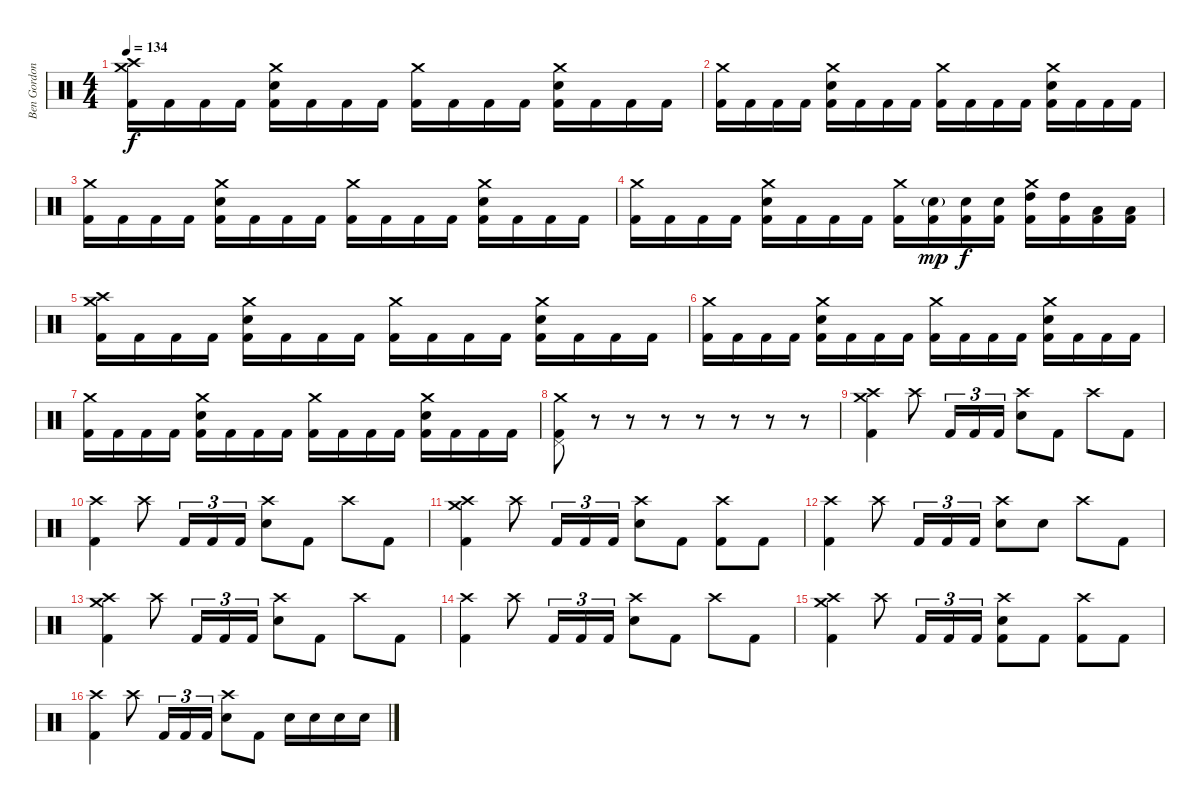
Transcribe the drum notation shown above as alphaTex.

\track ("Ben Gordon" "Ben Gordon") {instrument percussion}
\staff {score}
\articulation defaults
\ts (4 4)
\tempo 134
\clef neutral
\ks c
("Crash medium (hit)" "Crash high (hit)" "Kick (hit) 2").16{dy f} "Kick (hit) 2".16 "Kick (hit) 2".16 "Kick (hit) 2".16 ("Crash medium (hit)" "Electric Snare (hit)" "Kick (hit) 2").16 "Kick (hit) 2".16 "Kick (hit) 2".16 "Kick (hit) 2".16 ("Crash medium (hit)" "Kick (hit) 2").16 "Kick (hit) 2".16 "Kick (hit) 2".16 "Kick (hit) 2".16 ("Crash medium (hit)" "Electric Snare (hit)" "Kick (hit) 2").16 "Kick (hit) 2".16 "Kick (hit) 2".16 "Kick (hit) 2".16 |
("Crash medium (hit)" "Kick (hit) 2").16 "Kick (hit) 2".16 "Kick (hit) 2".16 "Kick (hit) 2".16 ("Crash medium (hit)" "Electric Snare (hit)" "Kick (hit) 2").16 "Kick (hit) 2".16 "Kick (hit) 2".16 "Kick (hit) 2".16 ("Crash medium (hit)" "Kick (hit) 2").16 "Kick (hit) 2".16 "Kick (hit) 2".16 "Kick (hit) 2".16 ("Crash medium (hit)" "Electric Snare (hit)" "Kick (hit) 2").16 "Kick (hit) 2".16 "Kick (hit) 2".16 "Kick (hit) 2".16 |
("Crash medium (hit)" "Kick (hit) 2").16 "Kick (hit) 2".16 "Kick (hit) 2".16 "Kick (hit) 2".16 ("Crash medium (hit)" "Electric Snare (hit)" "Kick (hit) 2").16 "Kick (hit) 2".16 "Kick (hit) 2".16 "Kick (hit) 2".16 ("Crash medium (hit)" "Kick (hit) 2").16 "Kick (hit) 2".16 "Kick (hit) 2".16 "Kick (hit) 2".16 ("Crash medium (hit)" "Electric Snare (hit)" "Kick (hit) 2").16 "Kick (hit) 2".16 "Kick (hit) 2".16 "Kick (hit) 2".16 |
("Crash medium (hit)" "Kick (hit) 2").16 "Kick (hit) 2".16 "Kick (hit) 2".16 "Kick (hit) 2".16 ("Crash medium (hit)" "Electric Snare (hit)" "Kick (hit) 2").16 "Kick (hit) 2".16 "Kick (hit) 2".16 "Kick (hit) 2".16 ("Crash medium (hit)" "Kick (hit) 2").16 ("Electric Snare (hit)"{g} "Kick (hit) 2").16{dy mp} ("Electric Snare (hit)" "Kick (hit) 2").16{dy f} ("Electric Snare (hit)" "Kick (hit) 2").16 ("Crash medium (hit)" "High Tom (hit)" "Kick (hit) 2").16 ("High Tom (hit)" "Kick (hit) 2").16 ("Low Tom (hit)" "Kick (hit) 2").16 ("Low Tom (hit)" "Kick (hit) 2").16 |
("Crash medium (hit)" "Crash high (hit)" "Kick (hit) 2").16 "Kick (hit) 2".16 "Kick (hit) 2".16 "Kick (hit) 2".16 ("Crash medium (hit)" "Electric Snare (hit)" "Kick (hit) 2").16 "Kick (hit) 2".16 "Kick (hit) 2".16 "Kick (hit) 2".16 ("Crash medium (hit)" "Kick (hit) 2").16 "Kick (hit) 2".16 "Kick (hit) 2".16 "Kick (hit) 2".16 ("Crash medium (hit)" "Electric Snare (hit)" "Kick (hit) 2").16 "Kick (hit) 2".16 "Kick (hit) 2".16 "Kick (hit) 2".16 |
("Crash medium (hit)" "Kick (hit) 2").16 "Kick (hit) 2".16 "Kick (hit) 2".16 "Kick (hit) 2".16 ("Crash medium (hit)" "Electric Snare (hit)" "Kick (hit) 2").16 "Kick (hit) 2".16 "Kick (hit) 2".16 "Kick (hit) 2".16 ("Crash medium (hit)" "Kick (hit) 2").16 "Kick (hit) 2".16 "Kick (hit) 2".16 "Kick (hit) 2".16 ("Crash medium (hit)" "Electric Snare (hit)" "Kick (hit) 2").16 "Kick (hit) 2".16 "Kick (hit) 2".16 "Kick (hit) 2".16 |
("Crash medium (hit)" "Kick (hit) 2").16 "Kick (hit) 2".16 "Kick (hit) 2".16 "Kick (hit) 2".16 ("Crash medium (hit)" "Electric Snare (hit)" "Kick (hit) 2").16 "Kick (hit) 2".16 "Kick (hit) 2".16 "Kick (hit) 2".16 ("Crash medium (hit)" "Kick (hit) 2").16 "Kick (hit) 2".16 "Kick (hit) 2".16 "Kick (hit) 2".16 ("Crash medium (hit)" "Electric Snare (hit)" "Kick (hit) 2").16 "Kick (hit) 2".16 "Kick (hit) 2".16 "Kick (hit) 2".16 |
("Crash medium (hit)" "Pedal Hi-Hat (hit)" "Kick (hit) 2").8 r.8 r.8 r.8 r.8 r.8 r.8 r.8 |
("Crash medium (hit)" "Crash high (hit)" "Kick (hit) 2").4 "Crash high (hit)".8 "Kick (hit) 2".16{tu (3 2)} "Kick (hit) 2".16{tu (3 2)} "Kick (hit) 2".16{tu (3 2)} ("Crash high (hit)" "Electric Snare (hit)").8 "Kick (hit) 2".8 "Crash high (hit)".8 "Kick (hit) 2".8 |
("Crash high (hit)" "Kick (hit) 2").4 "Crash high (hit)".8 "Kick (hit) 2".16{tu (3 2)} "Kick (hit) 2".16{tu (3 2)} "Kick (hit) 2".16{tu (3 2)} ("Crash high (hit)" "Electric Snare (hit)").8 "Kick (hit) 2".8 "Crash high (hit)".8 "Kick (hit) 2".8 |
("Crash medium (hit)" "Crash high (hit)" "Kick (hit) 2").4 "Crash high (hit)".8 "Kick (hit) 2".16{tu (3 2)} "Kick (hit) 2".16{tu (3 2)} "Kick (hit) 2".16{tu (3 2)} ("Crash high (hit)" "Electric Snare (hit)").8 "Kick (hit) 2".8 ("Crash high (hit)" "Kick (hit) 2").8 "Kick (hit) 2".8 |
("Crash high (hit)" "Kick (hit) 2").4 "Crash high (hit)".8 "Kick (hit) 2".16{tu (3 2)} "Kick (hit) 2".16{tu (3 2)} "Kick (hit) 2".16{tu (3 2)} ("Crash high (hit)" "Electric Snare (hit)").8 "Electric Snare (hit)".8 "Crash high (hit)".8 "Kick (hit) 2".8 |
("Crash medium (hit)" "Crash high (hit)" "Kick (hit) 2").4 "Crash high (hit)".8 "Kick (hit) 2".16{tu (3 2)} "Kick (hit) 2".16{tu (3 2)} "Kick (hit) 2".16{tu (3 2)} ("Crash high (hit)" "Electric Snare (hit)").8 "Kick (hit) 2".8 "Crash high (hit)".8 "Kick (hit) 2".8 |
("Crash high (hit)" "Kick (hit) 2").4 "Crash high (hit)".8 "Kick (hit) 2".16{tu (3 2)} "Kick (hit) 2".16{tu (3 2)} "Kick (hit) 2".16{tu (3 2)} ("Crash high (hit)" "Electric Snare (hit)").8 "Kick (hit) 2".8 "Crash high (hit)".8 "Kick (hit) 2".8 |
("Crash medium (hit)" "Crash high (hit)" "Kick (hit) 2").4 "Crash high (hit)".8 "Kick (hit) 2".16{tu (3 2)} "Kick (hit) 2".16{tu (3 2)} "Kick (hit) 2".16{tu (3 2)} ("Crash high (hit)" "Electric Snare (hit)" "Kick (hit) 2").8 "Kick (hit) 2".8 ("Crash high (hit)" "Kick (hit) 2").8 "Kick (hit) 2".8 |
("Crash high (hit)" "Kick (hit) 2").4 "Crash high (hit)".8 "Kick (hit) 2".16{tu (3 2)} "Kick (hit) 2".16{tu (3 2)} "Kick (hit) 2".16{tu (3 2)} ("Crash high (hit)" "Electric Snare (hit)").8 "Kick (hit) 2".8 "Electric Snare (hit)".16 "Electric Snare (hit)".16 "Electric Snare (hit)".16 "Electric Snare (hit)".16
